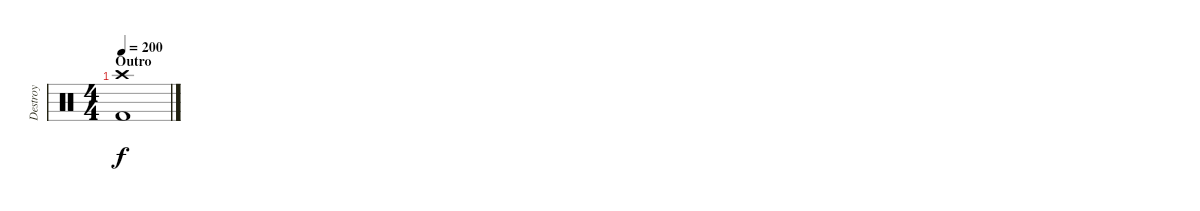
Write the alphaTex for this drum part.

\track ("Destroy" "Destroy") {instrument percussion}
\staff {score}
\articulation defaults
\ts (4 4)
\section ("" "Outro")
\tempo 200
\clef neutral
\ks c
("Crash high (hit)" "Kick (hit) 2").1{dy f}
